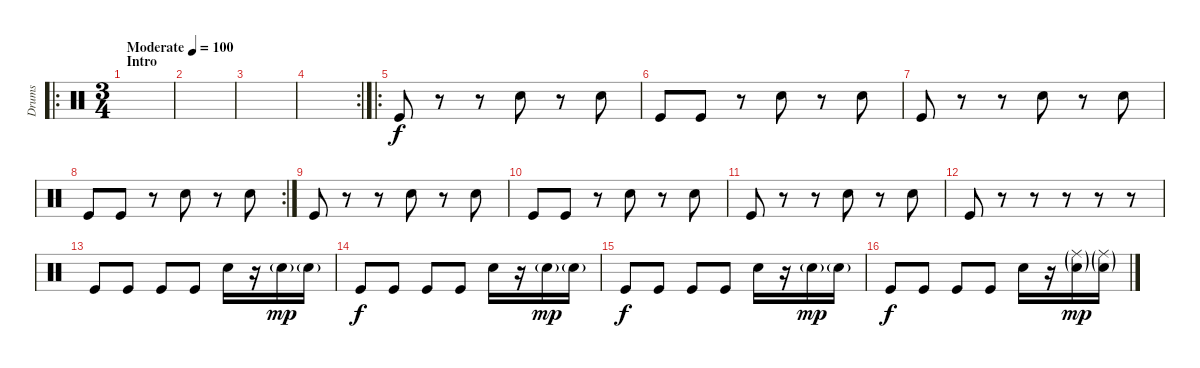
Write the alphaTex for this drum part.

\track ("Drums" "Drums") {instrument percussion}
\staff {score}
\articulation defaults
\ro
\ts (3 4)
\section ("" "Intro")
\tempo (100 "Moderate")
\clef neutral
\ks c
|
|
|
\rc 2
|
\ro "Kick (hit)".8
r.8 r.8 "Electric Snare (hit)".8 r.8 "Electric Snare (hit)".8 |
"Kick (hit)".8 "Kick (hit)".8 r.8 "Electric Snare (hit)".8 r.8 "Electric Snare (hit)".8 |
"Kick (hit)".8 r.8 r.8 "Electric Snare (hit)".8 r.8 "Electric Snare (hit)".8 |
\rc 2 "Kick (hit)".8 "Kick (hit)".8
r.8 "Electric Snare (hit)".8 r.8 "Electric Snare (hit)".8 |
"Kick (hit)".8 r.8 r.8 "Electric Snare (hit)".8 r.8 "Electric Snare (hit)".8 |
"Kick (hit)".8 "Kick (hit)".8 r.8 "Electric Snare (hit)".8 r.8 "Electric Snare (hit)".8 |
"Kick (hit)".8 r.8 r.8 "Electric Snare (hit)".8 r.8 "Electric Snare (hit)".8 |
"Kick (hit)".8 r.8 r.8 r.8 r.8 r.8 |
"Kick (hit)".8 "Kick (hit)".8 "Kick (hit)".8 "Kick (hit)".8 "Electric Snare (hit)".16 r.16 "Electric Snare (hit)"{g}.16{dy mp} "Electric Snare (hit)"{g}.16 |
"Kick (hit)".8{dy f} "Kick (hit)".8 "Kick (hit)".8 "Kick (hit)".8 "Electric Snare (hit)".16 r.16 "Electric Snare (hit)"{g}.16{dy mp} "Electric Snare (hit)"{g}.16 |
"Kick (hit)".8{dy f} "Kick (hit)".8 "Kick (hit)".8 "Kick (hit)".8 "Electric Snare (hit)".16 r.16 "Electric Snare (hit)"{g}.16{dy mp} "Electric Snare (hit)"{g}.16 |
"Kick (hit)".8{dy f} "Kick (hit)".8 "Kick (hit)".8 "Kick (hit)".8 "Electric Snare (hit)".16 r.16 ("Ride (middle)"{g} "Electric Snare (hit)"{g}).16{dy mp} ("Ride (middle)"{g} "Electric Snare (hit)"{g}).16
